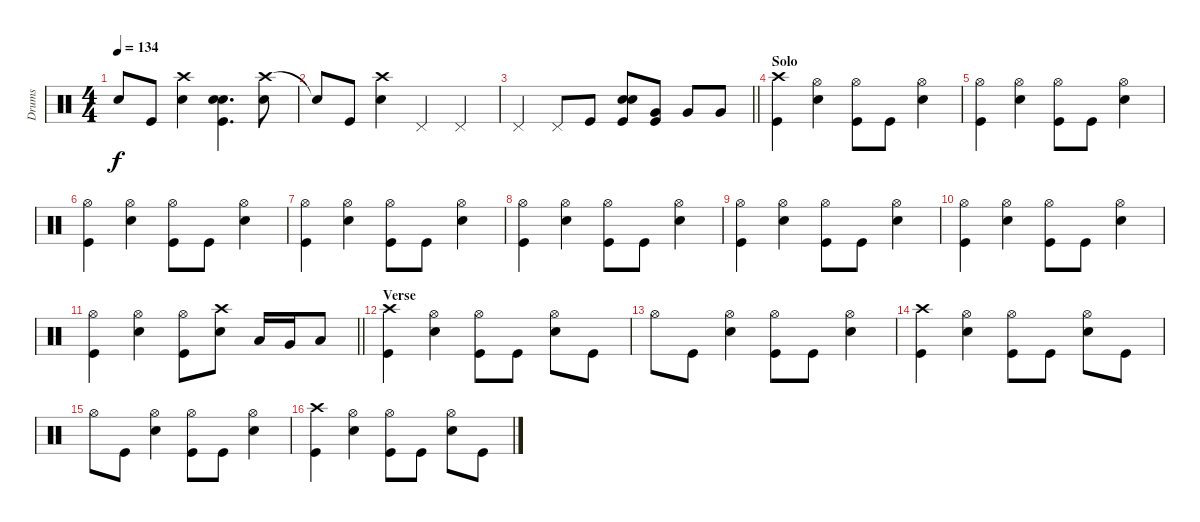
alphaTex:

\track ("Drums" "Drums") {instrument percussion}
\staff {score}
\articulation defaults
\ts (4 4)
\tempo 134
\clef neutral
\ks c "Snare (hit)"{t}.8{dy f} "Kick (hit)".8
("Crash high (hit)" "Snare (hit) 2").4 ("Snare (hit) 2" "Electric Snare (hit)" "Kick (hit)").4{d} ("Crash high (hit)" "Snare (hit) 2").8 |
"Snare (hit)"{t}.8 "Kick (hit)".8 ("Crash high (hit)" "Snare (hit) 2").4 "Pedal Hi-Hat (hit)".4 "Pedal Hi-Hat (hit)".4 |
\barLineRight lightlight "Pedal Hi-Hat (hit)".4 "Pedal Hi-Hat (hit)".8 "Kick (hit)".8
("Snare (hit) 2" "Electric Snare (hit)" "Kick (hit)").8 ("Very Low Tom (hit)" "Kick (hit)").8 "Very Low Tom (hit)".8 "Very Low Tom (hit)".8 |
\section ("" "Solo")
("Crash high (hit)" "Kick (hit)").4 ("Hi-Hat (open)" "Snare (hit) 2").4 ("Hi-Hat (open)" "Kick (hit)").8 "Kick (hit)".8 ("Hi-Hat (open)" "Snare (hit) 2").4 |
("Hi-Hat (open)" "Kick (hit)").4 ("Hi-Hat (open)" "Snare (hit) 2").4 ("Hi-Hat (open)" "Kick (hit)").8 "Kick (hit)".8 ("Hi-Hat (open)" "Snare (hit) 2").4 |
("Hi-Hat (open)" "Kick (hit)").4 ("Hi-Hat (open)" "Snare (hit) 2").4 ("Hi-Hat (open)" "Kick (hit)").8 "Kick (hit)".8 ("Hi-Hat (open)" "Snare (hit) 2").4 |
("Hi-Hat (open)" "Kick (hit)").4 ("Hi-Hat (open)" "Snare (hit) 2").4 ("Hi-Hat (open)" "Kick (hit)").8 "Kick (hit)".8 ("Hi-Hat (open)" "Snare (hit) 2").4 |
("Hi-Hat (open)" "Kick (hit)").4 ("Hi-Hat (open)" "Snare (hit) 2").4 ("Hi-Hat (open)" "Kick (hit)").8 "Kick (hit)".8 ("Hi-Hat (open)" "Snare (hit) 2").4 |
("Hi-Hat (open)" "Kick (hit)").4 ("Hi-Hat (open)" "Snare (hit) 2").4 ("Hi-Hat (open)" "Kick (hit)").8 "Kick (hit)".8 ("Hi-Hat (open)" "Snare (hit) 2").4 |
("Hi-Hat (open)" "Kick (hit)").4 ("Hi-Hat (open)" "Snare (hit) 2").4 ("Hi-Hat (open)" "Kick (hit)").8 "Kick (hit)".8 ("Hi-Hat (open)" "Snare (hit) 2").4 |
\barLineRight lightlight
("Hi-Hat (open)" "Kick (hit)").4 ("Hi-Hat (open)" "Snare (hit) 2").4 ("Hi-Hat (open)" "Kick (hit)").8 ("Crash high (hit)" "Snare (hit) 2").8 "Low Tom (hit)".16 "Very Low Tom (hit)".16 "Low Floor Tom (hit)".8 |
\section ("" "Verse")
("Crash high (hit)" "Kick (hit)").4 ("Hi-Hat (open)" "Snare (hit) 2").4 ("Hi-Hat (open)" "Kick (hit)").8 "Kick (hit)".8 ("Hi-Hat (open)" "Snare (hit) 2").8 "Kick (hit)".8 |
"Hi-Hat (open)".8 "Kick (hit)".8 ("Hi-Hat (open)" "Snare (hit) 2").4 ("Hi-Hat (open)" "Kick (hit)").8 "Kick (hit)".8 ("Hi-Hat (open)" "Snare (hit) 2").4 |
("Crash high (hit)" "Kick (hit)").4 ("Hi-Hat (open)" "Snare (hit) 2").4 ("Hi-Hat (open)" "Kick (hit)").8 "Kick (hit)".8 ("Hi-Hat (open)" "Snare (hit) 2").8 "Kick (hit)".8 |
"Hi-Hat (open)".8 "Kick (hit)".8 ("Hi-Hat (open)" "Snare (hit) 2").4 ("Hi-Hat (open)" "Kick (hit)").8 "Kick (hit)".8 ("Hi-Hat (open)" "Snare (hit) 2").4 |
("Crash high (hit)" "Kick (hit)").4 ("Hi-Hat (open)" "Snare (hit) 2").4 ("Hi-Hat (open)" "Kick (hit)").8 "Kick (hit)".8 ("Hi-Hat (open)" "Snare (hit) 2").8 "Kick (hit)".8
